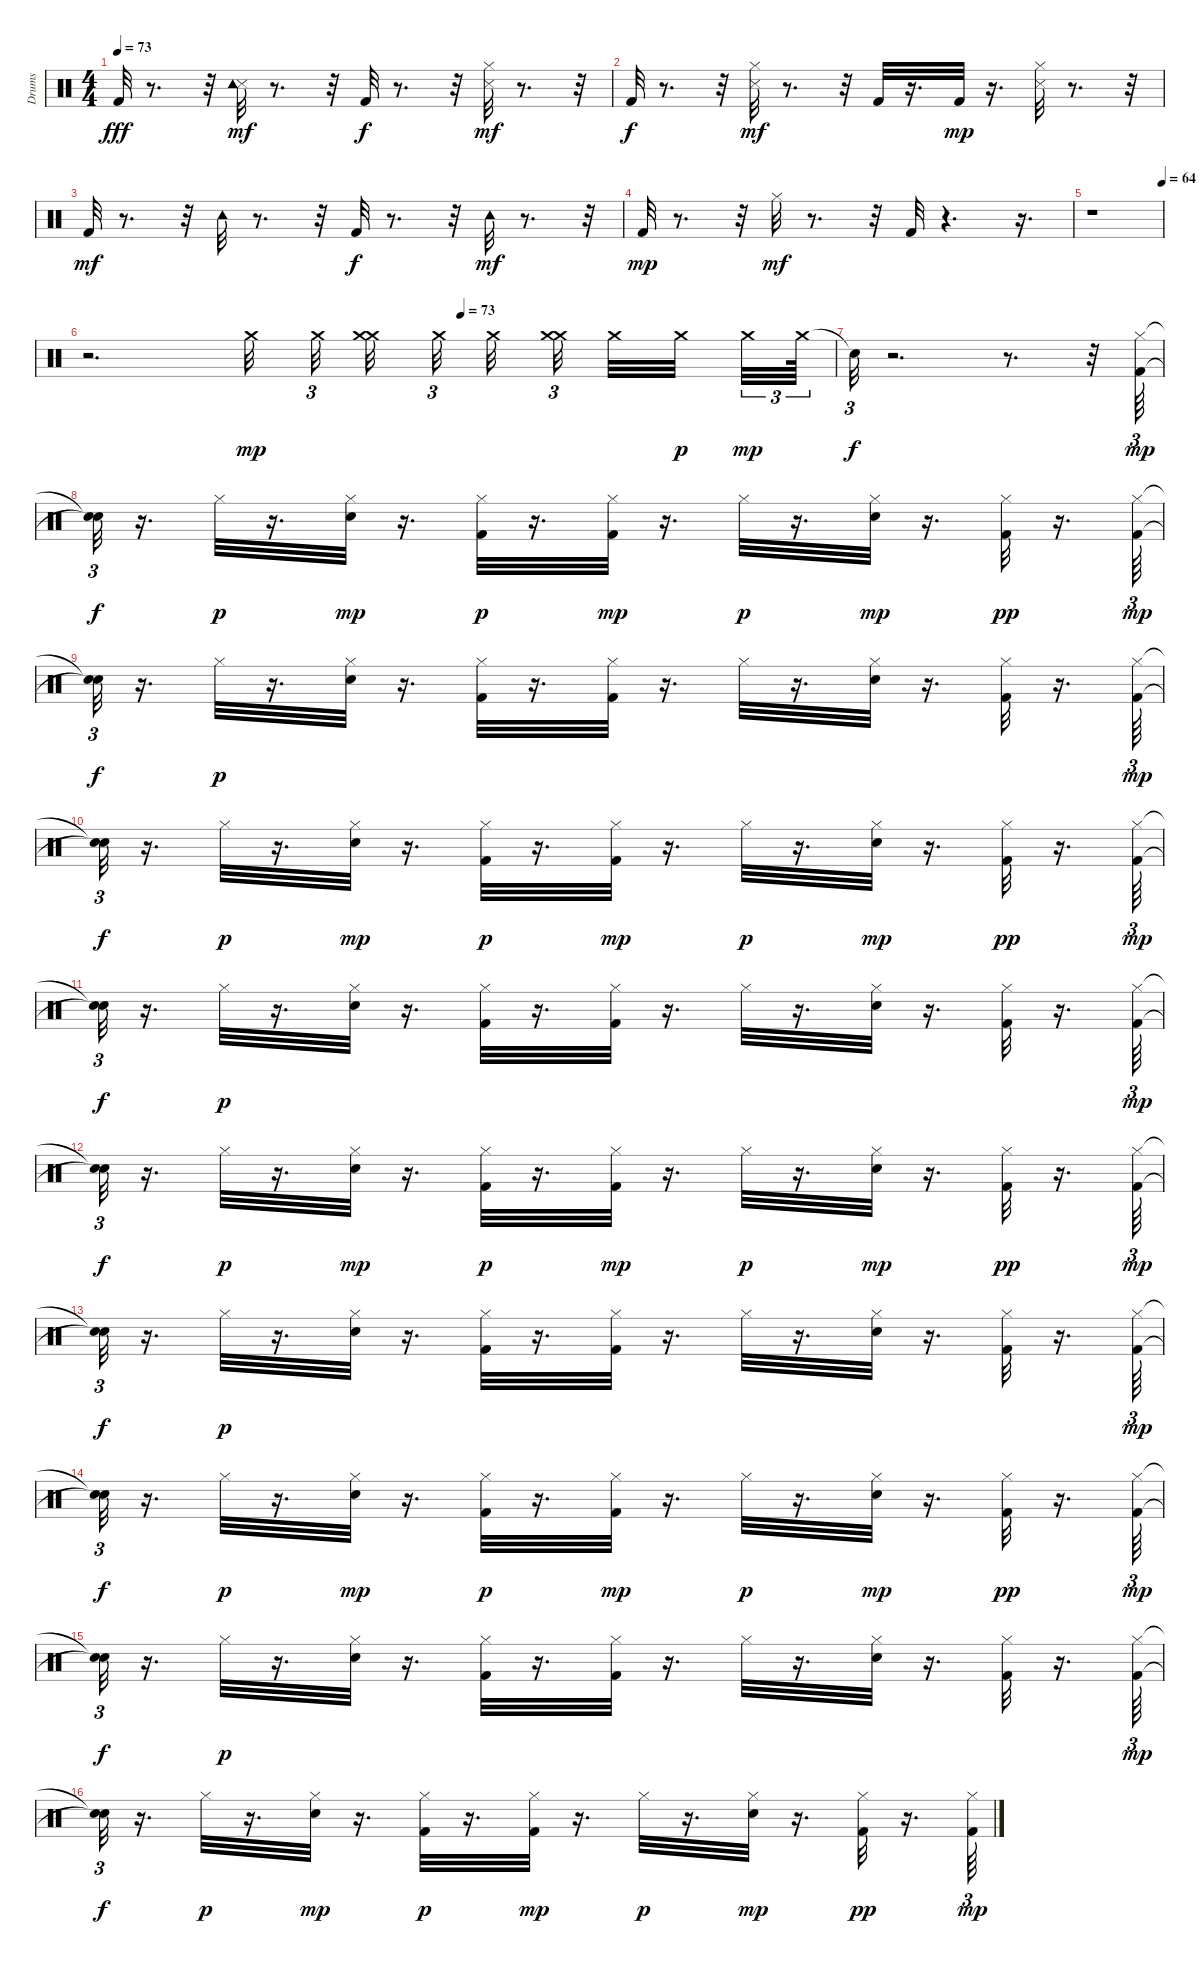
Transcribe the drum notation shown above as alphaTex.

\track ("Drums" "Drums") {instrument percussion}
\staff {score}
\articulation defaults
\ts (4 4)
\tempo 73
\clef neutral
\ks c "Kick (hit) 2".32{dy fff}
r.8{d} r.32 ("Snare (side stick) 3" "Tambourine (hit)").32{dy mf} r.8{d} r.32 "Kick (hit) 2".32{dy f} r.8{d} r.32 ("Hi-Hat (closed)" "Snare (side stick) 3").32{dy mf} r.8{d} r.32 |
"Kick (hit) 2".32{dy f} r.8{d} r.32 ("Hi-Hat (closed)" "Snare (side stick) 3").32{dy mf} r.8{d} r.32 "Kick (hit) 2".32 r.16{d} "Kick (hit) 2".32{dy mp} r.16{d} ("Hi-Hat (closed)" "Snare (side stick) 3").32 r.8{d} r.32 |
"Kick (hit) 2".32{dy mf} r.8{d} r.32 "Tambourine (hit)".32 r.8{d} r.32 "Kick (hit) 2".32{dy f} r.8{d} r.32 "Tambourine (hit)".32{dy mf} r.8{d} r.32 |
"Kick (hit) 2".32{dy mp} r.8{d} r.32 "Hi-Hat (closed)".32{dy mf} r.8{d} r.32 "Kick (hit) 2".32 r.4{d} r.16{d} |
\tempo (64 1)
r.1 |
\tempo (73 0.5)
r.2{d} "Crash medium (hit)".32{dy mp beam splitsecondary} "Crash medium (hit)".32{tu (3 2) beam splitsecondary} ("Crash medium (hit)" "Crash medium (hit)").32{beam splitsecondary} "Crash medium (hit)".32{tu (3 2) beam splitsecondary} "Crash medium (hit)".32{beam splitsecondary} ("Crash medium (hit)" "Crash medium (hit)").32{tu (3 2) beam splitsecondary} "Crash medium (hit)".32 "Crash medium (hit)".32{dy p beam splitsecondary} "Crash medium (hit)".32{tu (3 2) dy mp} "Crash medium (hit)".64{tu (3 2)} |
"Snare (hit)"{t}.32{tu (3 2) dy f} r.2{d} r.8{d} r.32 ("Kick (hit) 2" "Hi-Hat (closed)").64{tu (3 2) dy mp} |
("Snare (hit)"{t} "Snare (hit)"{t}).32{tu (3 2) dy f} r.16{d} "Hi-Hat (closed)".32{dy p} r.16{d} ("Snare (hit) 2" "Hi-Hat (closed)").32{dy mp} r.16{d} ("Kick (hit) 2" "Hi-Hat (closed)").32{dy p} r.16{d} ("Kick (hit) 2" "Hi-Hat (closed)").32{dy mp} r.16{d} "Hi-Hat (closed)".32{dy p} r.16{d} ("Snare (hit) 2" "Hi-Hat (closed)").32{dy mp} r.16{d} ("Kick (hit) 2" "Hi-Hat (closed)").32{dy pp} r.16{d} ("Kick (hit) 2" "Hi-Hat (closed)").64{tu (3 2) dy mp} |
("Snare (hit)"{t} "Snare (hit)"{t}).32{tu (3 2) dy f} r.16{d} "Hi-Hat (closed)".32{dy p} r.16{d} ("Snare (hit) 2" "Hi-Hat (closed)").32 r.16{d} ("Kick (hit) 2" "Hi-Hat (closed)").32 r.16{d} ("Kick (hit) 2" "Hi-Hat (closed)").32 r.16{d} "Hi-Hat (closed)".32 r.16{d} ("Snare (hit) 2" "Hi-Hat (closed)").32 r.16{d} ("Kick (hit) 2" "Hi-Hat (closed)").32 r.16{d} ("Kick (hit) 2" "Hi-Hat (closed)").64{tu (3 2) dy mp} |
("Snare (hit)"{t} "Snare (hit)"{t}).32{tu (3 2) dy f} r.16{d} "Hi-Hat (closed)".32{dy p} r.16{d} ("Snare (hit) 2" "Hi-Hat (closed)").32{dy mp} r.16{d} ("Kick (hit) 2" "Hi-Hat (closed)").32{dy p} r.16{d} ("Kick (hit) 2" "Hi-Hat (closed)").32{dy mp} r.16{d} "Hi-Hat (closed)".32{dy p} r.16{d} ("Snare (hit) 2" "Hi-Hat (closed)").32{dy mp} r.16{d} ("Kick (hit) 2" "Hi-Hat (closed)").32{dy pp} r.16{d} ("Kick (hit) 2" "Hi-Hat (closed)").64{tu (3 2) dy mp} |
("Snare (hit)"{t} "Snare (hit)"{t}).32{tu (3 2) dy f} r.16{d} "Hi-Hat (closed)".32{dy p} r.16{d} ("Snare (hit) 2" "Hi-Hat (closed)").32 r.16{d} ("Kick (hit) 2" "Hi-Hat (closed)").32 r.16{d} ("Kick (hit) 2" "Hi-Hat (closed)").32 r.16{d} "Hi-Hat (closed)".32 r.16{d} ("Snare (hit) 2" "Hi-Hat (closed)").32 r.16{d} ("Kick (hit) 2" "Hi-Hat (closed)").32 r.16{d} ("Kick (hit) 2" "Hi-Hat (closed)").64{tu (3 2) dy mp} |
("Snare (hit)"{t} "Snare (hit)"{t}).32{tu (3 2) dy f} r.16{d} "Hi-Hat (closed)".32{dy p} r.16{d} ("Snare (hit) 2" "Hi-Hat (closed)").32{dy mp} r.16{d} ("Kick (hit) 2" "Hi-Hat (closed)").32{dy p} r.16{d} ("Kick (hit) 2" "Hi-Hat (closed)").32{dy mp} r.16{d} "Hi-Hat (closed)".32{dy p} r.16{d} ("Snare (hit) 2" "Hi-Hat (closed)").32{dy mp} r.16{d} ("Kick (hit) 2" "Hi-Hat (closed)").32{dy pp} r.16{d} ("Kick (hit) 2" "Hi-Hat (closed)").64{tu (3 2) dy mp} |
("Snare (hit)"{t} "Snare (hit)"{t}).32{tu (3 2) dy f} r.16{d} "Hi-Hat (closed)".32{dy p} r.16{d} ("Snare (hit) 2" "Hi-Hat (closed)").32 r.16{d} ("Kick (hit) 2" "Hi-Hat (closed)").32 r.16{d} ("Kick (hit) 2" "Hi-Hat (closed)").32 r.16{d} "Hi-Hat (closed)".32 r.16{d} ("Snare (hit) 2" "Hi-Hat (closed)").32 r.16{d} ("Kick (hit) 2" "Hi-Hat (closed)").32 r.16{d} ("Kick (hit) 2" "Hi-Hat (closed)").64{tu (3 2) dy mp} |
("Snare (hit)"{t} "Snare (hit)"{t}).32{tu (3 2) dy f} r.16{d} "Hi-Hat (closed)".32{dy p} r.16{d} ("Snare (hit) 2" "Hi-Hat (closed)").32{dy mp} r.16{d} ("Kick (hit) 2" "Hi-Hat (closed)").32{dy p} r.16{d} ("Kick (hit) 2" "Hi-Hat (closed)").32{dy mp} r.16{d} "Hi-Hat (closed)".32{dy p} r.16{d} ("Snare (hit) 2" "Hi-Hat (closed)").32{dy mp} r.16{d} ("Kick (hit) 2" "Hi-Hat (closed)").32{dy pp} r.16{d} ("Kick (hit) 2" "Hi-Hat (closed)").64{tu (3 2) dy mp} |
("Snare (hit)"{t} "Snare (hit)"{t}).32{tu (3 2) dy f} r.16{d} "Hi-Hat (closed)".32{dy p} r.16{d} ("Snare (hit) 2" "Hi-Hat (closed)").32 r.16{d} ("Kick (hit) 2" "Hi-Hat (closed)").32 r.16{d} ("Kick (hit) 2" "Hi-Hat (closed)").32 r.16{d} "Hi-Hat (closed)".32 r.16{d} ("Snare (hit) 2" "Hi-Hat (closed)").32 r.16{d} ("Kick (hit) 2" "Hi-Hat (closed)").32 r.16{d} ("Kick (hit) 2" "Hi-Hat (closed)").64{tu (3 2) dy mp} |
("Snare (hit)"{t} "Snare (hit)"{t}).32{tu (3 2) dy f} r.16{d} "Hi-Hat (closed)".32{dy p} r.16{d} ("Snare (hit) 2" "Hi-Hat (closed)").32{dy mp} r.16{d} ("Kick (hit) 2" "Hi-Hat (closed)").32{dy p} r.16{d} ("Kick (hit) 2" "Hi-Hat (closed)").32{dy mp} r.16{d} "Hi-Hat (closed)".32{dy p} r.16{d} ("Snare (hit) 2" "Hi-Hat (closed)").32{dy mp} r.16{d} ("Kick (hit) 2" "Hi-Hat (closed)").32{dy pp} r.16{d} ("Kick (hit) 2" "Hi-Hat (closed)").64{tu (3 2) dy mp}
